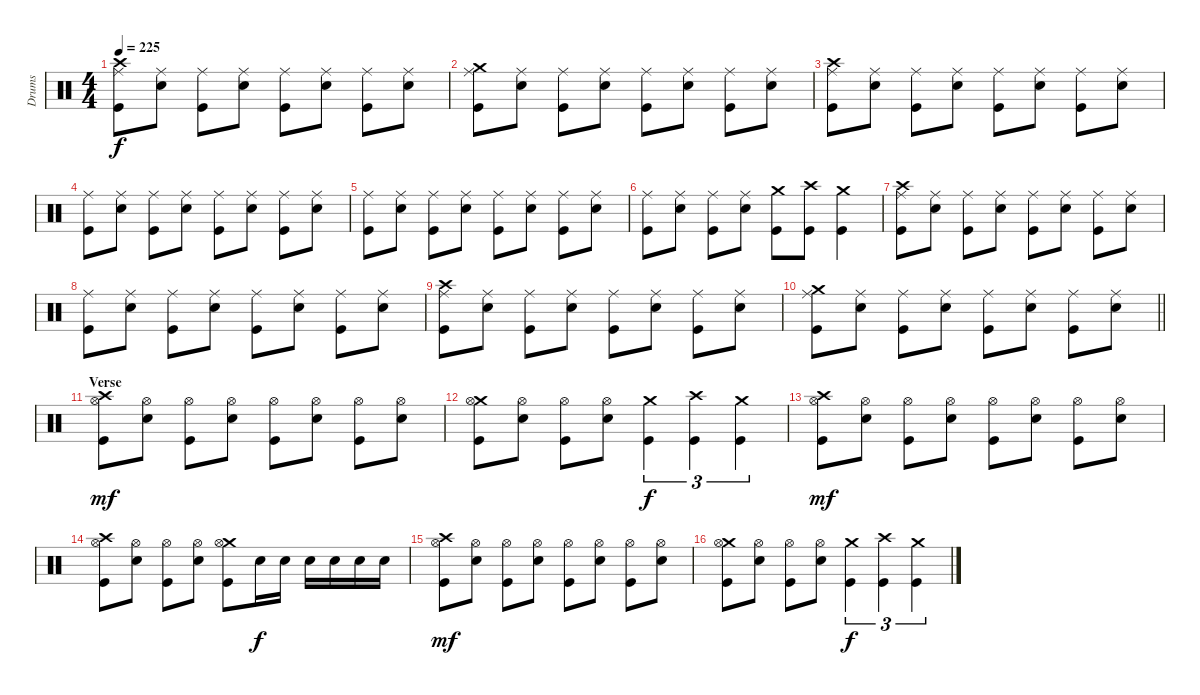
\track ("Drums" "Drums") {instrument percussion}
\staff {score}
\articulation defaults
\ts (4 4)
\tempo 225
\clef neutral
\ks c
("Crash high (hit)" "Ride (middle)" "Kick (hit)").8{dy f} ("Ride (middle)" "Electric Snare (hit)").8 ("Ride (middle)" "Kick (hit)").8 ("Ride (middle)" "Electric Snare (hit)").8 ("Ride (middle)" "Kick (hit)").8 ("Ride (middle)" "Electric Snare (hit)").8 ("Ride (middle)" "Kick (hit)").8 ("Ride (middle)" "Electric Snare (hit)").8 |
("Crash medium (hit)" "Ride (middle)" "Kick (hit)").8 ("Ride (middle)" "Electric Snare (hit)").8 ("Ride (middle)" "Kick (hit)").8 ("Ride (middle)" "Electric Snare (hit)").8 ("Ride (middle)" "Kick (hit)").8 ("Ride (middle)" "Electric Snare (hit)").8 ("Ride (middle)" "Kick (hit)").8 ("Ride (middle)" "Electric Snare (hit)").8 |
("Crash high (hit)" "Ride (middle)" "Kick (hit)").8 ("Ride (middle)" "Electric Snare (hit)").8 ("Ride (middle)" "Kick (hit)").8 ("Ride (middle)" "Electric Snare (hit)").8 ("Ride (middle)" "Kick (hit)").8 ("Ride (middle)" "Electric Snare (hit)").8 ("Ride (middle)" "Kick (hit)").8 ("Ride (middle)" "Electric Snare (hit)").8 |
("Ride (middle)" "Kick (hit)").8 ("Ride (middle)" "Electric Snare (hit)").8 ("Ride (middle)" "Kick (hit)").8 ("Ride (middle)" "Electric Snare (hit)").8 ("Ride (middle)" "Kick (hit)").8 ("Ride (middle)" "Electric Snare (hit)").8 ("Ride (middle)" "Kick (hit)").8 ("Ride (middle)" "Electric Snare (hit)").8 |
("Ride (middle)" "Kick (hit)").8 ("Ride (middle)" "Electric Snare (hit)").8 ("Ride (middle)" "Kick (hit)").8 ("Ride (middle)" "Electric Snare (hit)").8 ("Ride (middle)" "Kick (hit)").8 ("Ride (middle)" "Electric Snare (hit)").8 ("Ride (middle)" "Kick (hit)").8 ("Ride (middle)" "Electric Snare (hit)").8 |
("Ride (middle)" "Kick (hit)").8 ("Ride (middle)" "Electric Snare (hit)").8 ("Ride (middle)" "Kick (hit)").8 ("Ride (middle)" "Electric Snare (hit)").8 ("Crash medium (hit)" "Kick (hit)").8 ("Crash high (hit)" "Kick (hit)").8 ("Crash medium (hit)" "Kick (hit)").4 |
("Crash high (hit)" "Ride (middle)" "Kick (hit)").8 ("Ride (middle)" "Electric Snare (hit)").8 ("Ride (middle)" "Kick (hit)").8 ("Ride (middle)" "Electric Snare (hit)").8 ("Ride (middle)" "Kick (hit)").8 ("Ride (middle)" "Electric Snare (hit)").8 ("Ride (middle)" "Kick (hit)").8 ("Ride (middle)" "Electric Snare (hit)").8 |
("Ride (middle)" "Kick (hit)").8 ("Ride (middle)" "Electric Snare (hit)").8 ("Ride (middle)" "Kick (hit)").8 ("Ride (middle)" "Electric Snare (hit)").8 ("Ride (middle)" "Kick (hit)").8 ("Ride (middle)" "Electric Snare (hit)").8 ("Ride (middle)" "Kick (hit)").8 ("Ride (middle)" "Electric Snare (hit)").8 |
("Crash high (hit)" "Ride (middle)" "Kick (hit)").8 ("Ride (middle)" "Electric Snare (hit)").8 ("Ride (middle)" "Kick (hit)").8 ("Ride (middle)" "Electric Snare (hit)").8 ("Ride (middle)" "Kick (hit)").8 ("Ride (middle)" "Electric Snare (hit)").8 ("Ride (middle)" "Kick (hit)").8 ("Ride (middle)" "Electric Snare (hit)").8 |
\barLineRight lightlight
("Crash medium (hit)" "Ride (middle)" "Kick (hit)").8 ("Ride (middle)" "Electric Snare (hit)").8 ("Ride (middle)" "Kick (hit)").8 ("Ride (middle)" "Electric Snare (hit)").8 ("Ride (middle)" "Kick (hit)").8 ("Ride (middle)" "Electric Snare (hit)").8 ("Ride (middle)" "Kick (hit)").8 ("Ride (middle)" "Electric Snare (hit)").8 |
\section ("" "Verse")
("Crash high (hit)" "Hi-Hat (open)" "Kick (hit)").8{dy mf} ("Hi-Hat (open)" "Electric Snare (hit)").8 ("Hi-Hat (open)" "Kick (hit)").8 ("Hi-Hat (open)" "Electric Snare (hit)").8 ("Hi-Hat (open)" "Kick (hit)").8 ("Hi-Hat (open)" "Electric Snare (hit)").8 ("Hi-Hat (open)" "Kick (hit)").8 ("Hi-Hat (open)" "Electric Snare (hit)").8 |
("Crash medium (hit)" "Hi-Hat (open)" "Kick (hit)").8 ("Hi-Hat (open)" "Electric Snare (hit)").8 ("Hi-Hat (open)" "Kick (hit)").8 ("Hi-Hat (open)" "Electric Snare (hit)").8 ("Crash medium (hit)" "Kick (hit)").4{tu (3 2) dy f} ("Crash high (hit)" "Kick (hit)").4{tu (3 2)} ("Crash medium (hit)" "Kick (hit)").4{tu (3 2)} |
("Crash high (hit)" "Hi-Hat (open)" "Kick (hit)").8{dy mf} ("Hi-Hat (open)" "Electric Snare (hit)").8 ("Hi-Hat (open)" "Kick (hit)").8 ("Hi-Hat (open)" "Electric Snare (hit)").8 ("Hi-Hat (open)" "Kick (hit)").8 ("Hi-Hat (open)" "Electric Snare (hit)").8 ("Hi-Hat (open)" "Kick (hit)").8 ("Hi-Hat (open)" "Electric Snare (hit)").8 |
("Crash high (hit)" "Hi-Hat (open)" "Kick (hit)").8 ("Hi-Hat (open)" "Electric Snare (hit)").8 ("Hi-Hat (open)" "Kick (hit)").8 ("Hi-Hat (open)" "Electric Snare (hit)").8 ("Crash medium (hit)" "Hi-Hat (open)" "Kick (hit)").8 "Electric Snare (hit)".16{dy f} "Electric Snare (hit)".16 "Electric Snare (hit)".16 "Electric Snare (hit)".16 "Electric Snare (hit)".16 "Electric Snare (hit)".16 |
("Crash high (hit)" "Hi-Hat (open)" "Kick (hit)").8{dy mf} ("Hi-Hat (open)" "Electric Snare (hit)").8 ("Hi-Hat (open)" "Kick (hit)").8 ("Hi-Hat (open)" "Electric Snare (hit)").8 ("Hi-Hat (open)" "Kick (hit)").8 ("Hi-Hat (open)" "Electric Snare (hit)").8 ("Hi-Hat (open)" "Kick (hit)").8 ("Hi-Hat (open)" "Electric Snare (hit)").8 |
("Crash medium (hit)" "Hi-Hat (open)" "Kick (hit)").8 ("Hi-Hat (open)" "Electric Snare (hit)").8 ("Hi-Hat (open)" "Kick (hit)").8 ("Hi-Hat (open)" "Electric Snare (hit)").8 ("Crash medium (hit)" "Kick (hit)").4{tu (3 2) dy f} ("Crash high (hit)" "Kick (hit)").4{tu (3 2)} ("Crash medium (hit)" "Kick (hit)").4{tu (3 2)}
